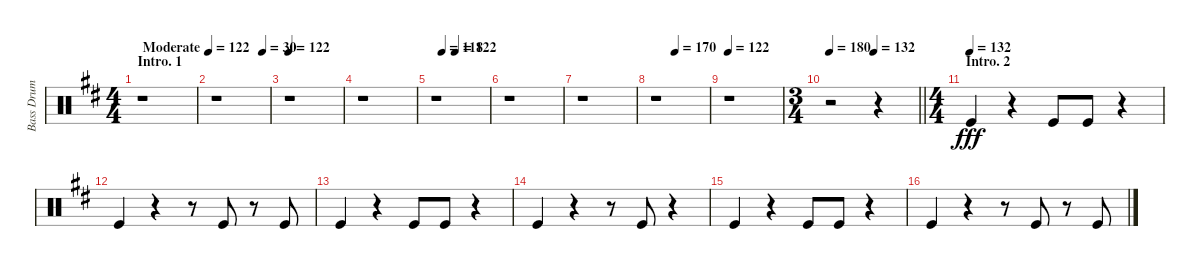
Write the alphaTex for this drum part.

\track ("Bass Drum" "Bass Drum") {instrument percussion}
\staff {score}
\articulation defaults
\ts (4 4)
\section ("" "Intro. 1")
\tempo (122 "Moderate")
\clef neutral
\ks d
r.1{dy fff} |
\tempo (30 0.875)
r.1 |
\tempo 122
r.1 |
r.1 |
\tempo (118 0.125)
\tempo (122 0.375)
r.1 |
r.1 |
r.1 |
\tempo (170 0.375)
r.1 |
\tempo 132
\tempo 122
r.1 |
\ts (3 4)
\tempo 180
\tempo (132 0.5)
\barLineRight lightlight
r.2 r.4 |
\ts (4 4)
\section ("" "Intro. 2")
\tempo (132)
"Kick (hit)".4 r.4 "Kick (hit)".8 "Kick (hit)".8 r.4 |
"Kick (hit)".4 r.4 r.8 "Kick (hit)".8 r.8 "Kick (hit)".8 |
"Kick (hit)".4 r.4 "Kick (hit)".8 "Kick (hit)".8 r.4 |
"Kick (hit)".4 r.4 r.8 "Kick (hit)".8 r.4 |
"Kick (hit)".4 r.4 "Kick (hit)".8 "Kick (hit)".8 r.4 |
"Kick (hit)".4 r.4 r.8 "Kick (hit)".8 r.8 "Kick (hit)".8
